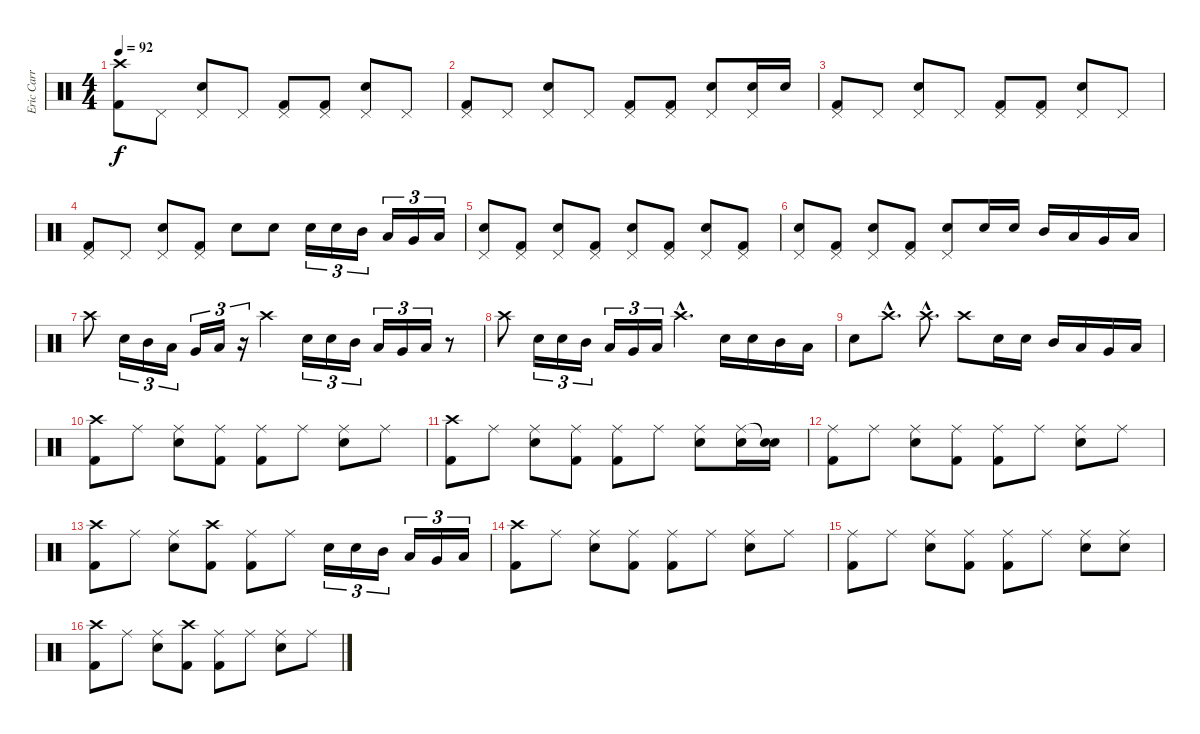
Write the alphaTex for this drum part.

\track ("Eric Carr" "Eric Carr") {instrument percussion}
\staff {score}
\articulation defaults
\ts (4 4)
\tempo 92
\clef neutral
\ks c
("Kick (hit) 2" "Crash high (hit)").8{dy f} "Pedal Hi-Hat (hit)".8 ("Snare (hit) 2" "Pedal Hi-Hat (hit)").8 "Pedal Hi-Hat (hit)".8 ("Kick (hit) 2" "Pedal Hi-Hat (hit)").8 ("Kick (hit) 2" "Pedal Hi-Hat (hit)").8 ("Snare (hit) 2" "Pedal Hi-Hat (hit)").8 "Pedal Hi-Hat (hit)".8 |
("Kick (hit) 2" "Pedal Hi-Hat (hit)").8 "Pedal Hi-Hat (hit)".8 ("Snare (hit) 2" "Pedal Hi-Hat (hit)").8 "Pedal Hi-Hat (hit)".8 ("Kick (hit) 2" "Pedal Hi-Hat (hit)").8 ("Kick (hit) 2" "Pedal Hi-Hat (hit)").8 ("Snare (hit) 2" "Pedal Hi-Hat (hit)").8 ("Snare (hit) 2" "Pedal Hi-Hat (hit)").16 "Snare (hit) 2".16 |
("Kick (hit) 2" "Pedal Hi-Hat (hit)").8 "Pedal Hi-Hat (hit)".8 ("Snare (hit) 2" "Pedal Hi-Hat (hit)").8 "Pedal Hi-Hat (hit)".8 ("Kick (hit) 2" "Pedal Hi-Hat (hit)").8 ("Kick (hit) 2" "Pedal Hi-Hat (hit)").8 ("Snare (hit) 2" "Pedal Hi-Hat (hit)").8 "Pedal Hi-Hat (hit)".8 |
("Kick (hit) 2" "Pedal Hi-Hat (hit)").8 "Pedal Hi-Hat (hit)".8 ("Snare (hit) 2" "Pedal Hi-Hat (hit)").8 ("Kick (hit) 2" "Pedal Hi-Hat (hit)").8 "Snare (hit) 2".8 "Snare (hit) 2".8 "Snare (hit) 2".16{tu (3 2)} "Snare (hit) 2".16{tu (3 2)} "Mid Tom (hit)".16{tu (3 2)} "Low Tom (hit)".16{tu (3 2)} "Very Low Tom (hit)".16{tu (3 2)} "Low Floor Tom (hit)".16{tu (3 2)} |
("Snare (hit) 2" "Pedal Hi-Hat (hit)").8 ("Kick (hit) 2" "Pedal Hi-Hat (hit)").8 ("Snare (hit) 2" "Pedal Hi-Hat (hit)").8 ("Kick (hit) 2" "Pedal Hi-Hat (hit)").8 ("Snare (hit) 2" "Pedal Hi-Hat (hit)").8 ("Kick (hit) 2" "Pedal Hi-Hat (hit)").8 ("Snare (hit) 2" "Pedal Hi-Hat (hit)").8 ("Kick (hit) 2" "Pedal Hi-Hat (hit)").8 |
("Snare (hit) 2" "Pedal Hi-Hat (hit)").8 ("Kick (hit) 2" "Pedal Hi-Hat (hit)").8 ("Snare (hit) 2" "Pedal Hi-Hat (hit)").8 ("Kick (hit) 2" "Pedal Hi-Hat (hit)").8 ("Snare (hit) 2" "Pedal Hi-Hat (hit)").8 "Snare (hit) 2".16 "Snare (hit) 2".16 "Mid Tom (hit)".16 "Low Tom (hit)".16 "Very Low Tom (hit)".16 "Low Floor Tom (hit)".16 |
"Crash high (hit)".8 "Snare (hit) 2".16{tu (3 2)} "Mid Tom (hit)".16{tu (3 2)} "Low Tom (hit)".16{tu (3 2)} "Very Low Tom (hit)".16{tu (3 2)} "Low Floor Tom (hit)".16{tu (3 2)} r.16{tu (3 2)} "Crash high (hit)".4 "Snare (hit) 2".16{tu (3 2)} "Snare (hit) 2".16{tu (3 2)} "Mid Tom (hit)".16{tu (3 2)} "Low Tom (hit)".16{tu (3 2)} "Very Low Tom (hit)".16{tu (3 2)} "Low Floor Tom (hit)".16{tu (3 2)} r.8 |
"Crash high (hit)".8 "Snare (hit) 2".16{tu (3 2)} "Snare (hit) 2".16{tu (3 2)} "Mid Tom (hit)".16{tu (3 2)} "Low Tom (hit)".16{tu (3 2)} "Very Low Tom (hit)".16{tu (3 2)} "Low Floor Tom (hit)".16{tu (3 2)} "Crash high (hit)"{hac}.4{d} "Snare (hit) 2".16 "Snare (hit) 2".16 "Mid Tom (hit)".16 "Low Tom (hit)".16 |
"Snare (hit) 2".8 "Crash high (hit)"{hac}.8{d} "Crash high (hit)"{hac}.8{d} "Crash high (hit)".8 "Snare (hit) 2".16 "Snare (hit) 2".16 "Mid Tom (hit)".16 "Low Tom (hit)".16 "Very Low Tom (hit)".16 "Low Floor Tom (hit)".16 |
("Kick (hit) 2" "Crash high (hit)").8 "Ride (middle)".8 ("Snare (hit) 2" "Ride (middle)").8 ("Kick (hit) 2" "Ride (middle)").8 ("Kick (hit) 2" "Ride (middle)").8 "Ride (middle)".8 ("Snare (hit) 2" "Ride (middle)").8 "Ride (middle)".8 |
("Kick (hit) 2" "Crash high (hit)").8 "Ride (middle)".8 ("Snare (hit) 2" "Ride (middle)").8 ("Kick (hit) 2" "Ride (middle)").8 ("Kick (hit) 2" "Ride (middle)").8 "Ride (middle)".8 ("Snare (hit) 2" "Ride (middle)").8 ("Snare (hit) 2" "Ride (middle)").16 ("Snare (hit) 2" "Snare (hit)"{t}).16 |
("Kick (hit) 2" "Ride (middle)").8 "Ride (middle)".8 ("Snare (hit) 2" "Ride (middle)").8 ("Kick (hit) 2" "Ride (middle)").8 ("Kick (hit) 2" "Ride (middle)").8 "Ride (middle)".8 ("Snare (hit) 2" "Ride (middle)").8 "Ride (middle)".8 |
("Kick (hit) 2" "Crash high (hit)").8 "Ride (middle)".8 ("Snare (hit) 2" "Ride (middle)").8 ("Kick (hit) 2" "Crash high (hit)").8 ("Kick (hit) 2" "Ride (middle)").8 "Ride (middle)".8 "Snare (hit) 2".16{tu (3 2)} "Snare (hit) 2".16{tu (3 2)} "Mid Tom (hit)".16{tu (3 2)} "Low Tom (hit)".16{tu (3 2)} "Very Low Tom (hit)".16{tu (3 2)} "Low Floor Tom (hit)".16{tu (3 2)} |
("Kick (hit) 2" "Crash high (hit)").8 "Ride (middle)".8 ("Snare (hit) 2" "Ride (middle)").8 ("Kick (hit) 2" "Ride (middle)").8 ("Kick (hit) 2" "Ride (middle)").8 "Ride (middle)".8 ("Snare (hit) 2" "Ride (middle)").8 "Ride (middle)".8 |
("Kick (hit) 2" "Ride (middle)").8 "Ride (middle)".8 ("Snare (hit) 2" "Ride (middle)").8 ("Kick (hit) 2" "Ride (middle)").8 ("Kick (hit) 2" "Ride (middle)").8 "Ride (middle)".8 ("Snare (hit) 2" "Ride (middle)").8 ("Snare (hit) 2" "Ride (middle)").8 |
("Kick (hit) 2" "Crash high (hit)").8 "Ride (middle)".8 ("Snare (hit) 2" "Ride (middle)").8 ("Kick (hit) 2" "Crash high (hit)").8 ("Kick (hit) 2" "Ride (middle)").8 "Ride (middle)".8 ("Snare (hit) 2" "Ride (middle)").8 "Ride (middle)".8
